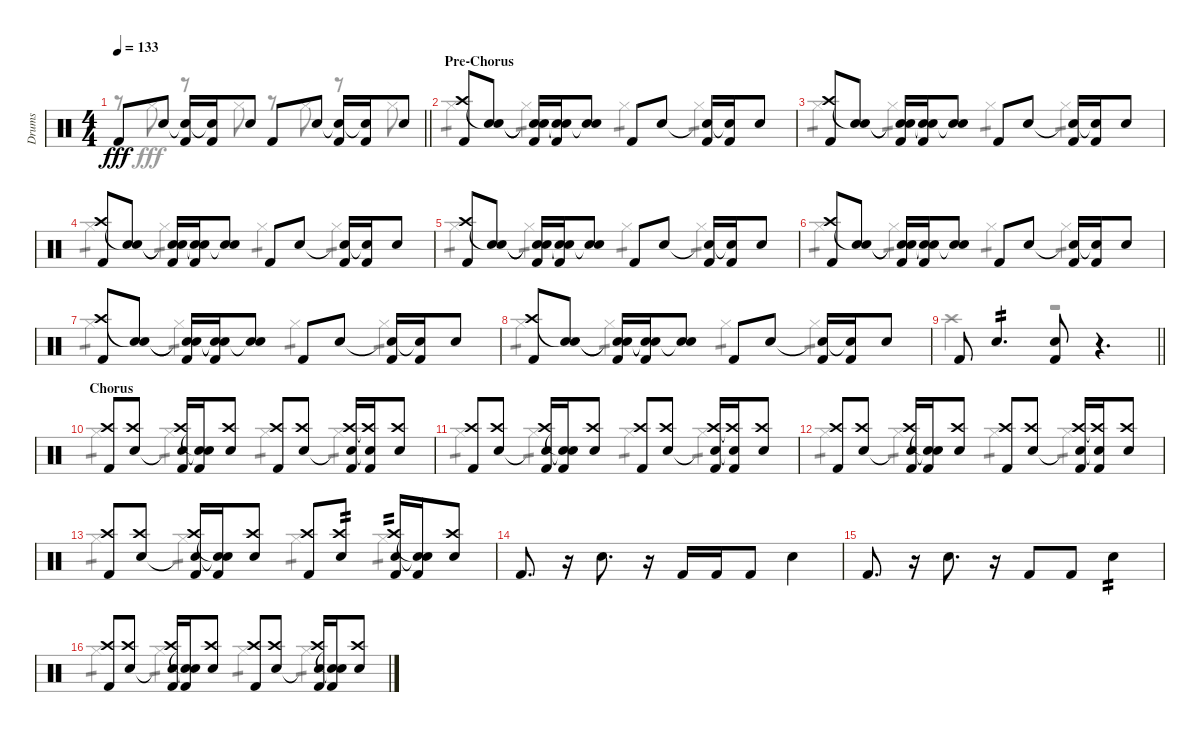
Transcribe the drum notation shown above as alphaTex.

\track ("Drums" "Drums") {instrument percussion}
\staff
\articulation defaults
\voice
\ts (4 4)
\tempo 133
\clef neutral
\barLineRight lightlight
\ks c "Kick (hit) 2".8{dy fff} "Electric Snare (hit)".8
("Electric Snare (hit)"{t} "Kick (hit) 2").16 ("Electric Snare (hit)"{t} "Kick (hit) 2").16 "Electric Snare (hit)".8 "Kick (hit) 2".8 "Electric Snare (hit)".8 ("Electric Snare (hit)"{t} "Kick (hit) 2").16 ("Electric Snare (hit)"{t} "Kick (hit) 2").16 "Electric Snare (hit)".8 |
\section ("" "Pre-Chorus")
("Crash high (hit)" "Kick (hit) 2").8 ("Snare (hit)"{t} "Electric Snare (hit)").8 ("Snare (hit)"{t} "Electric Snare (hit)"{t} "Kick (hit) 2").16 ("Snare (hit)"{t} "Electric Snare (hit)"{t} "Kick (hit) 2").16 ("Snare (hit)"{t} "Electric Snare (hit)").8 "Kick (hit) 2".8 "Electric Snare (hit)".8 ("Electric Snare (hit)"{t} "Kick (hit) 2").16 ("Electric Snare (hit)"{t} "Kick (hit) 2").16 "Electric Snare (hit)".8 |
("Crash high (hit)" "Kick (hit) 2").8 ("Snare (hit)"{t} "Electric Snare (hit)").8 ("Snare (hit)"{t} "Electric Snare (hit)"{t} "Kick (hit) 2").16 ("Snare (hit)"{t} "Electric Snare (hit)"{t} "Kick (hit) 2").16 ("Snare (hit)"{t} "Electric Snare (hit)").8 "Kick (hit) 2".8 "Electric Snare (hit)".8 ("Electric Snare (hit)"{t} "Kick (hit) 2").16 ("Electric Snare (hit)"{t} "Kick (hit) 2").16 "Electric Snare (hit)".8 |
("Crash high (hit)" "Kick (hit) 2").8 ("Snare (hit)"{t} "Electric Snare (hit)").8 ("Snare (hit)"{t} "Electric Snare (hit)"{t} "Kick (hit) 2").16 ("Snare (hit)"{t} "Electric Snare (hit)"{t} "Kick (hit) 2").16 ("Snare (hit)"{t} "Electric Snare (hit)").8 "Kick (hit) 2".8 "Electric Snare (hit)".8 ("Electric Snare (hit)"{t} "Kick (hit) 2").16 ("Electric Snare (hit)"{t} "Kick (hit) 2").16 "Electric Snare (hit)".8 |
("Crash high (hit)" "Kick (hit) 2").8 ("Snare (hit)"{t} "Electric Snare (hit)").8 ("Snare (hit)"{t} "Electric Snare (hit)"{t} "Kick (hit) 2").16 ("Snare (hit)"{t} "Electric Snare (hit)"{t} "Kick (hit) 2").16 ("Snare (hit)"{t} "Electric Snare (hit)").8 "Kick (hit) 2".8 "Electric Snare (hit)".8 ("Electric Snare (hit)"{t} "Kick (hit) 2").16 ("Electric Snare (hit)"{t} "Kick (hit) 2").16 "Electric Snare (hit)".8 |
("Crash high (hit)" "Kick (hit) 2").8 ("Snare (hit)"{t} "Electric Snare (hit)").8 ("Snare (hit)"{t} "Electric Snare (hit)"{t} "Kick (hit) 2").16 ("Snare (hit)"{t} "Electric Snare (hit)"{t} "Kick (hit) 2").16 ("Snare (hit)"{t} "Electric Snare (hit)").8 "Kick (hit) 2".8 "Electric Snare (hit)".8 ("Electric Snare (hit)"{t} "Kick (hit) 2").16 ("Electric Snare (hit)"{t} "Kick (hit) 2").16 "Electric Snare (hit)".8 |
("Crash high (hit)" "Kick (hit) 2").8 ("Snare (hit)"{t} "Electric Snare (hit)").8 ("Snare (hit)"{t} "Electric Snare (hit)"{t} "Kick (hit) 2").16 ("Snare (hit)"{t} "Electric Snare (hit)"{t} "Kick (hit) 2").16 ("Snare (hit)"{t} "Electric Snare (hit)").8 "Kick (hit) 2".8 "Electric Snare (hit)".8 ("Electric Snare (hit)"{t} "Kick (hit) 2").16 ("Electric Snare (hit)"{t} "Kick (hit) 2").16 "Electric Snare (hit)".8 |
("Crash high (hit)" "Kick (hit) 2").8 ("Snare (hit)"{t} "Electric Snare (hit)").8 ("Snare (hit)"{t} "Electric Snare (hit)"{t} "Kick (hit) 2").16 ("Snare (hit)"{t} "Electric Snare (hit)"{t} "Kick (hit) 2").16 ("Snare (hit)"{t} "Electric Snare (hit)").8 "Kick (hit) 2".8 "Electric Snare (hit)".8 ("Electric Snare (hit)"{t} "Kick (hit) 2").16 ("Electric Snare (hit)"{t} "Kick (hit) 2").16 "Electric Snare (hit)".8 |
\barLineRight lightlight "Kick (hit) 2".8 "Electric Snare (hit)".4{d tp 2}
("Electric Snare (hit)" "Kick (hit) 2").8 r.4{d} |
\section ("" "Chorus")
("Crash high (hit)" "Kick (hit) 2").8 ("Crash high (hit)" "Electric Snare (hit)").8 ("Crash high (hit)" "Electric Snare (hit)"{t} "Kick (hit) 2").16 ("Snare (hit)"{t} "Electric Snare (hit)"{t} "Kick (hit) 2").16 ("Crash high (hit)" "Electric Snare (hit)").8 ("Crash high (hit)" "Kick (hit) 2").8 ("Crash high (hit)" "Electric Snare (hit)").8 ("Crash high (hit)" "Electric Snare (hit)"{t} "Kick (hit) 2").16 ("Crash high (hit)"{t} "Electric Snare (hit)"{t} "Kick (hit) 2").16 ("Crash high (hit)" "Electric Snare (hit)").8 |
("Crash high (hit)" "Kick (hit) 2").8 ("Crash high (hit)" "Electric Snare (hit)").8 ("Crash high (hit)" "Electric Snare (hit)"{t} "Kick (hit) 2").16 ("Snare (hit)"{t} "Electric Snare (hit)"{t} "Kick (hit) 2").16 ("Crash high (hit)" "Electric Snare (hit)").8 ("Crash high (hit)" "Kick (hit) 2").8 ("Crash high (hit)" "Electric Snare (hit)").8 ("Crash high (hit)" "Electric Snare (hit)"{t} "Kick (hit) 2").16 ("Crash high (hit)"{t} "Electric Snare (hit)"{t} "Kick (hit) 2").16 ("Crash high (hit)" "Electric Snare (hit)").8 |
("Crash high (hit)" "Kick (hit) 2").8 ("Crash high (hit)" "Electric Snare (hit)").8 ("Crash high (hit)" "Electric Snare (hit)"{t} "Kick (hit) 2").16 ("Snare (hit)"{t} "Electric Snare (hit)"{t} "Kick (hit) 2").16 ("Crash high (hit)" "Electric Snare (hit)").8 ("Crash high (hit)" "Kick (hit) 2").8 ("Crash high (hit)" "Electric Snare (hit)").8 ("Crash high (hit)" "Electric Snare (hit)"{t} "Kick (hit) 2").16 ("Crash high (hit)"{t} "Electric Snare (hit)"{t} "Kick (hit) 2").16 ("Crash high (hit)" "Electric Snare (hit)").8 |
("Crash high (hit)" "Kick (hit) 2").8 ("Crash high (hit)" "Electric Snare (hit)").8 ("Crash high (hit)" "Electric Snare (hit)"{t} "Kick (hit) 2").16 ("Snare (hit)"{t} "Electric Snare (hit)"{t} "Kick (hit) 2").16 ("Crash high (hit)" "Electric Snare (hit)").8 ("Crash high (hit)" "Kick (hit) 2").8 ("Crash high (hit)" "Electric Snare (hit)").8{tp 2} ("Crash high (hit)" "Electric Snare (hit)" "Kick (hit) 2").16{tp 2} ("Snare (hit)"{t} "Electric Snare (hit)"{t} "Kick (hit) 2").16 ("Crash high (hit)" "Electric Snare (hit)").8 |
"Kick (hit) 2".8{d} r.16 "Electric Snare (hit)".8{d} r.16 "Kick (hit) 2".16 "Kick (hit) 2".16 "Kick (hit) 2".8 "Electric Snare (hit)".4 |
"Kick (hit) 2".8{d} r.16 "Electric Snare (hit)".8{d} r.16 "Kick (hit) 2".8 "Kick (hit) 2".8 "Electric Snare (hit)".4{tp 2} |
("Crash high (hit)" "Kick (hit) 2").8 ("Crash high (hit)" "Electric Snare (hit)").8 ("Crash high (hit)" "Electric Snare (hit)"{t} "Kick (hit) 2").16 ("Snare (hit)"{t} "Electric Snare (hit)"{t} "Kick (hit) 2").16 ("Crash high (hit)" "Electric Snare (hit)").8 ("Crash high (hit)" "Kick (hit) 2").8 ("Crash high (hit)" "Electric Snare (hit)").8 ("Crash high (hit)" "Electric Snare (hit)"{t} "Kick (hit) 2").16 ("Snare (hit)"{t} "Electric Snare (hit)"{t} "Kick (hit) 2").16 ("Crash high (hit)" "Electric Snare (hit)").8
\voice
\clef neutral
\ottava regular
\simile none
\barLineRight lightlight
\ks c
r.8{dy fff} "Hi-Hat (closed)".8 r.8 "Hi-Hat (closed)".8 r.8 "Hi-Hat (closed)".8 r.8 "Hi-Hat (closed)".8 |
"Hi-Hat (closed)".4{tp 1} "Hi-Hat (closed)".4{tp 1} "Hi-Hat (closed)".4{tp 1} "Hi-Hat (closed)".4{tp 1} |
"Hi-Hat (closed)".4{tp 1} "Hi-Hat (closed)".4{tp 1} "Hi-Hat (closed)".4{tp 1} "Hi-Hat (closed)".4{tp 1} |
"Hi-Hat (closed)".4{tp 1} "Hi-Hat (closed)".4{tp 1} "Hi-Hat (closed)".4{tp 1} "Hi-Hat (closed)".4{tp 1} |
"Hi-Hat (closed)".4{tp 1} "Hi-Hat (closed)".4{tp 1} "Hi-Hat (closed)".4{tp 1} "Hi-Hat (closed)".4{tp 1} |
"Hi-Hat (closed)".4{tp 1} "Hi-Hat (closed)".4{tp 1} "Hi-Hat (closed)".4{tp 1} "Hi-Hat (closed)".4{tp 1} |
"Hi-Hat (closed)".4{tp 1} "Hi-Hat (closed)".4{tp 1} "Hi-Hat (closed)".4{tp 1} "Hi-Hat (closed)".4{tp 1} |
"Hi-Hat (closed)".4{tp 1} "Hi-Hat (closed)".4{tp 1} "Hi-Hat (closed)".4{tp 1} "Hi-Hat (closed)".4{tp 1} |
\barLineRight lightlight "Crash high (hit)".2
r.2 |
"Hi-Hat (closed)".4{tp 1} "Hi-Hat (closed)".4{tp 1} "Hi-Hat (closed)".4{tp 1} "Hi-Hat (closed)".4{tp 1} |
"Hi-Hat (closed)".4{tp 1} "Hi-Hat (closed)".4{tp 1} "Hi-Hat (closed)".4{tp 1} "Hi-Hat (closed)".4{tp 1} |
"Hi-Hat (closed)".4{tp 1} "Hi-Hat (closed)".4{tp 1} "Hi-Hat (closed)".4{tp 1} "Hi-Hat (closed)".4{tp 1} |
"Hi-Hat (closed)".4{tp 1} "Hi-Hat (closed)".4{tp 1} "Hi-Hat (closed)".4{tp 1} "Hi-Hat (closed)".4{tp 1} |
|
|
"Hi-Hat (closed)".4{tp 1} "Hi-Hat (closed)".4{tp 1} "Hi-Hat (closed)".4{tp 1} "Hi-Hat (closed)".4{tp 1}
